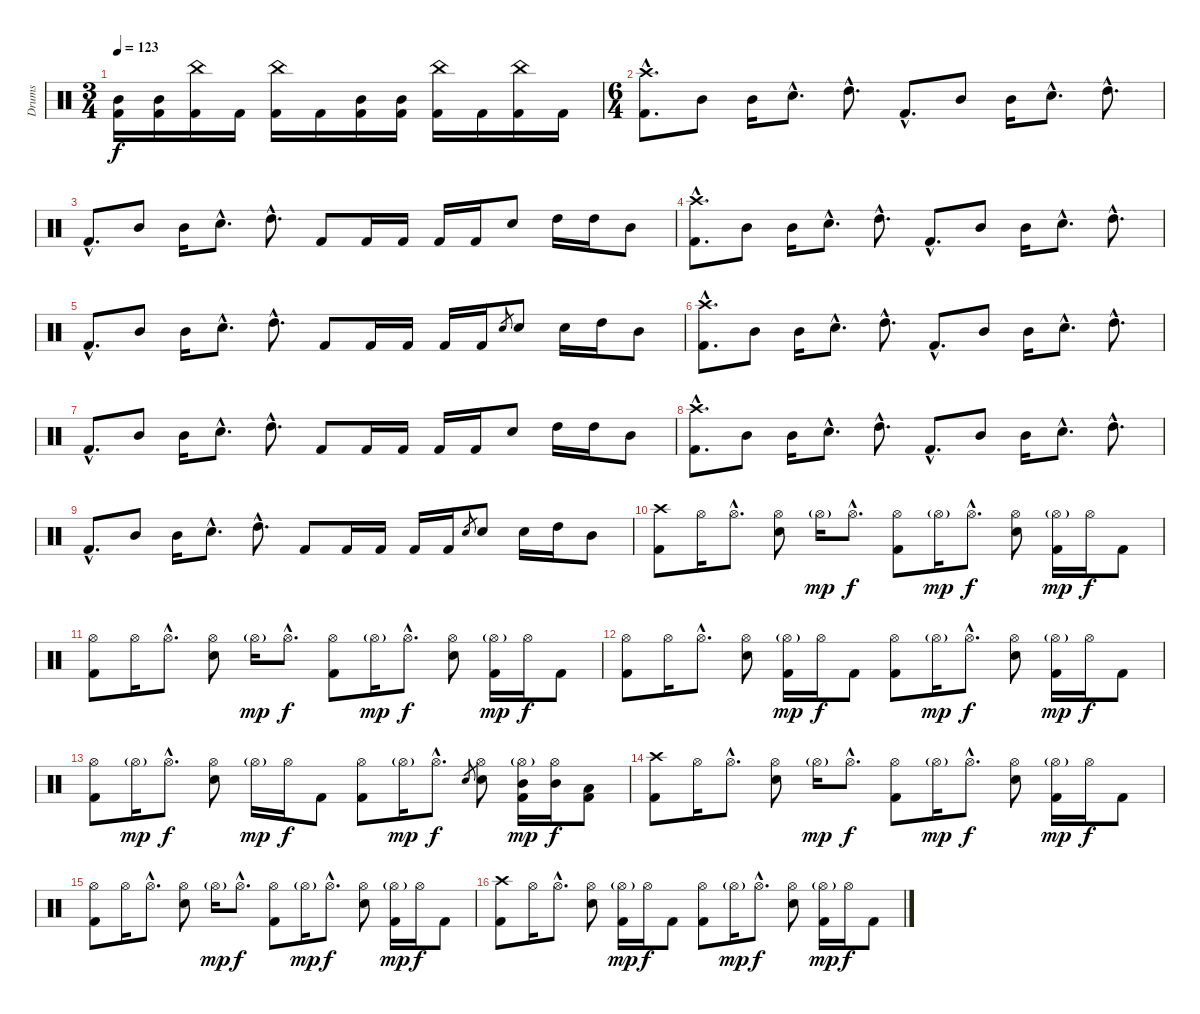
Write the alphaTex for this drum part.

\track ("Drums" "Drums") {instrument percussion}
\staff {score}
\articulation defaults
\ts (3 4)
\tempo 123
\clef neutral
\ks c
("Mid Tom (hit)" "Kick (hit) 2").16{dy f} ("Mid Tom (hit)" "Kick (hit) 2").16 ("China (hit)" "Kick (hit) 2").16 "Kick (hit) 2".16 ("China (hit)" "Kick (hit) 2").16 "Kick (hit) 2".16 ("Mid Tom (hit)" "Kick (hit) 2").16 ("Mid Tom (hit)" "Kick (hit) 2").16 ("China (hit)" "Kick (hit) 2").16 "Kick (hit) 2".16 ("China (hit)" "Kick (hit) 2").16 "Kick (hit) 2".16 |
\ts (6 4)
("Crash high (hit)"{hac} "Kick (hit) 2"{hac}).8{d} "Mid Tom (hit)".8 "Mid Tom (hit)".16 "Snare (hit) 2"{hac}.8{d} "High Tom (hit)"{hac}.8{d} "Kick (hit) 2"{hac}.8{d} "Mid Tom (hit)".8 "Mid Tom (hit)".16 "Snare (hit) 2"{hac}.8{d} "High Tom (hit)"{hac}.8{d} |
"Kick (hit) 2"{hac}.8{d} "Mid Tom (hit)".8 "Mid Tom (hit)".16 "Snare (hit) 2"{hac}.8{d} "High Tom (hit)"{hac}.8{d} "Kick (hit) 2".8 "Kick (hit) 2".16 "Kick (hit) 2".16 "Kick (hit) 2".16 "Kick (hit) 2".16 "Snare (hit) 2".8 "High Tom (hit)".16 "High Tom (hit)".16 "Mid Tom (hit)".8 |
("Crash high (hit)"{hac} "Kick (hit) 2"{hac}).8{d} "Mid Tom (hit)".8 "Mid Tom (hit)".16 "Snare (hit) 2"{hac}.8{d} "High Tom (hit)"{hac}.8{d} "Kick (hit) 2"{hac}.8{d} "Mid Tom (hit)".8 "Mid Tom (hit)".16 "Snare (hit) 2"{hac}.8{d} "High Tom (hit)"{hac}.8{d} |
"Kick (hit) 2"{hac}.8{d} "Mid Tom (hit)".8 "Mid Tom (hit)".16 "Snare (hit) 2"{hac}.8{d} "High Tom (hit)"{hac}.8{d} "Kick (hit) 2".8 "Kick (hit) 2".16 "Kick (hit) 2".16 "Kick (hit) 2".16 "Kick (hit) 2".16 "Snare (hit) 2".8{gr} "Snare (hit) 2".8 "Snare (hit) 2".16 "High Tom (hit)".16 "Mid Tom (hit)".8 |
("Crash high (hit)"{hac} "Kick (hit) 2"{hac}).8{d} "Mid Tom (hit)".8 "Mid Tom (hit)".16 "Snare (hit) 2"{hac}.8{d} "High Tom (hit)"{hac}.8{d} "Kick (hit) 2"{hac}.8{d} "Mid Tom (hit)".8 "Mid Tom (hit)".16 "Snare (hit) 2"{hac}.8{d} "High Tom (hit)"{hac}.8{d} |
"Kick (hit) 2"{hac}.8{d} "Mid Tom (hit)".8 "Mid Tom (hit)".16 "Snare (hit) 2"{hac}.8{d} "High Tom (hit)"{hac}.8{d} "Kick (hit) 2".8 "Kick (hit) 2".16 "Kick (hit) 2".16 "Kick (hit) 2".16 "Kick (hit) 2".16 "Snare (hit) 2".8 "High Tom (hit)".16 "High Tom (hit)".16 "Mid Tom (hit)".8 |
("Crash high (hit)"{hac} "Kick (hit) 2"{hac}).8{d} "Mid Tom (hit)".8 "Mid Tom (hit)".16 "Snare (hit) 2"{hac}.8{d} "High Tom (hit)"{hac}.8{d} "Kick (hit) 2"{hac}.8{d} "Mid Tom (hit)".8 "Mid Tom (hit)".16 "Snare (hit) 2"{hac}.8{d} "High Tom (hit)"{hac}.8{d} |
"Kick (hit) 2"{hac}.8{d} "Mid Tom (hit)".8 "Mid Tom (hit)".16 "Snare (hit) 2"{hac}.8{d} "High Tom (hit)"{hac}.8{d} "Kick (hit) 2".8 "Kick (hit) 2".16 "Kick (hit) 2".16 "Kick (hit) 2".16 "Kick (hit) 2".16 "Snare (hit) 2".8{gr} "Snare (hit) 2".8 "Snare (hit) 2".16 "High Tom (hit)".16 "Mid Tom (hit)".8 |
("Crash high (hit)" "Kick (hit) 2").8 "Hi-Hat (open)".16 "Hi-Hat (open)"{hac}.8{d} ("Hi-Hat (open)" "Snare (hit) 2").8 "Hi-Hat (open)"{g}.16{dy mp} "Hi-Hat (open)"{hac}.8{d dy f} ("Hi-Hat (open)" "Kick (hit) 2").8 "Hi-Hat (open)"{g}.16{dy mp} "Hi-Hat (open)"{hac}.8{d dy f} ("Hi-Hat (open)" "Snare (hit) 2").8 ("Hi-Hat (open)"{g} "Kick (hit) 2").16{dy mp} "Hi-Hat (open)".16{dy f} "Kick (hit) 2".8 |
("Hi-Hat (open)" "Kick (hit) 2").8 "Hi-Hat (open)".16 "Hi-Hat (open)"{hac}.8{d} ("Hi-Hat (open)" "Snare (hit) 2").8 "Hi-Hat (open)"{g}.16{dy mp} "Hi-Hat (open)"{hac}.8{d dy f} ("Hi-Hat (open)" "Kick (hit) 2").8 "Hi-Hat (open)"{g}.16{dy mp} "Hi-Hat (open)"{hac}.8{d dy f} ("Hi-Hat (open)" "Snare (hit) 2").8 ("Hi-Hat (open)"{g} "Kick (hit) 2").16{dy mp} "Hi-Hat (open)".16{dy f} "Kick (hit) 2".8 |
("Hi-Hat (open)" "Kick (hit) 2").8 "Hi-Hat (open)".16 "Hi-Hat (open)"{hac}.8{d} ("Hi-Hat (open)" "Snare (hit) 2").8 ("Hi-Hat (open)"{g} "Kick (hit) 2").16{dy mp} "Hi-Hat (open)".16{dy f} "Kick (hit) 2".8 ("Hi-Hat (open)" "Kick (hit) 2").8 "Hi-Hat (open)"{g}.16{dy mp} "Hi-Hat (open)"{hac}.8{d dy f} ("Hi-Hat (open)" "Snare (hit) 2").8 ("Hi-Hat (open)"{g} "Kick (hit) 2").16{dy mp} "Hi-Hat (open)".16{dy f} "Kick (hit) 2".8 |
("Hi-Hat (open)" "Kick (hit) 2").8 "Hi-Hat (open)"{g}.16{dy mp} "Hi-Hat (open)"{hac}.8{d dy f} ("Hi-Hat (open)" "Snare (hit) 2").8 "Hi-Hat (open)"{g}.16{dy mp} "Hi-Hat (open)".16{dy f} "Kick (hit) 2".8 ("Hi-Hat (open)" "Kick (hit) 2").8 "Hi-Hat (open)"{g}.16{dy mp} "Hi-Hat (open)"{hac}.8{d dy f} "Snare (hit) 2".8{gr} ("Hi-Hat (open)" "Snare (hit) 2").8 ("Hi-Hat (open)"{g} "Mid Tom (hit)" "Kick (hit) 2").16{dy mp} ("Hi-Hat (open)" "Mid Tom (hit)").16{dy f} ("Low Tom (hit)" "Kick (hit) 2").8 |
("Crash high (hit)" "Kick (hit) 2").8 "Hi-Hat (open)".16 "Hi-Hat (open)"{hac}.8{d} ("Hi-Hat (open)" "Snare (hit) 2").8 "Hi-Hat (open)"{g}.16{dy mp} "Hi-Hat (open)"{hac}.8{d dy f} ("Hi-Hat (open)" "Kick (hit) 2").8 "Hi-Hat (open)"{g}.16{dy mp} "Hi-Hat (open)"{hac}.8{d dy f} ("Hi-Hat (open)" "Snare (hit) 2").8 ("Hi-Hat (open)"{g} "Kick (hit) 2").16{dy mp} "Hi-Hat (open)".16{dy f} "Kick (hit) 2".8 |
("Hi-Hat (open)" "Kick (hit) 2").8 "Hi-Hat (open)".16 "Hi-Hat (open)"{hac}.8{d} ("Hi-Hat (open)" "Snare (hit) 2").8 "Hi-Hat (open)"{g}.16{dy mp} "Hi-Hat (open)"{hac}.8{d dy f} ("Hi-Hat (open)" "Kick (hit) 2").8 "Hi-Hat (open)"{g}.16{dy mp} "Hi-Hat (open)"{hac}.8{d dy f} ("Hi-Hat (open)" "Snare (hit) 2").8 ("Hi-Hat (open)"{g} "Kick (hit) 2").16{dy mp} "Hi-Hat (open)".16{dy f} "Kick (hit) 2".8 |
("Crash high (hit)" "Kick (hit) 2").8 "Hi-Hat (open)".16 "Hi-Hat (open)"{hac}.8{d} ("Hi-Hat (open)" "Snare (hit) 2").8 ("Hi-Hat (open)"{g} "Kick (hit) 2").16{dy mp} "Hi-Hat (open)".16{dy f} "Kick (hit) 2".8 ("Hi-Hat (open)" "Kick (hit) 2").8 "Hi-Hat (open)"{g}.16{dy mp} "Hi-Hat (open)"{hac}.8{d dy f} ("Hi-Hat (open)" "Snare (hit) 2").8 ("Hi-Hat (open)"{g} "Kick (hit) 2").16{dy mp} "Hi-Hat (open)".16{dy f} "Kick (hit) 2".8
